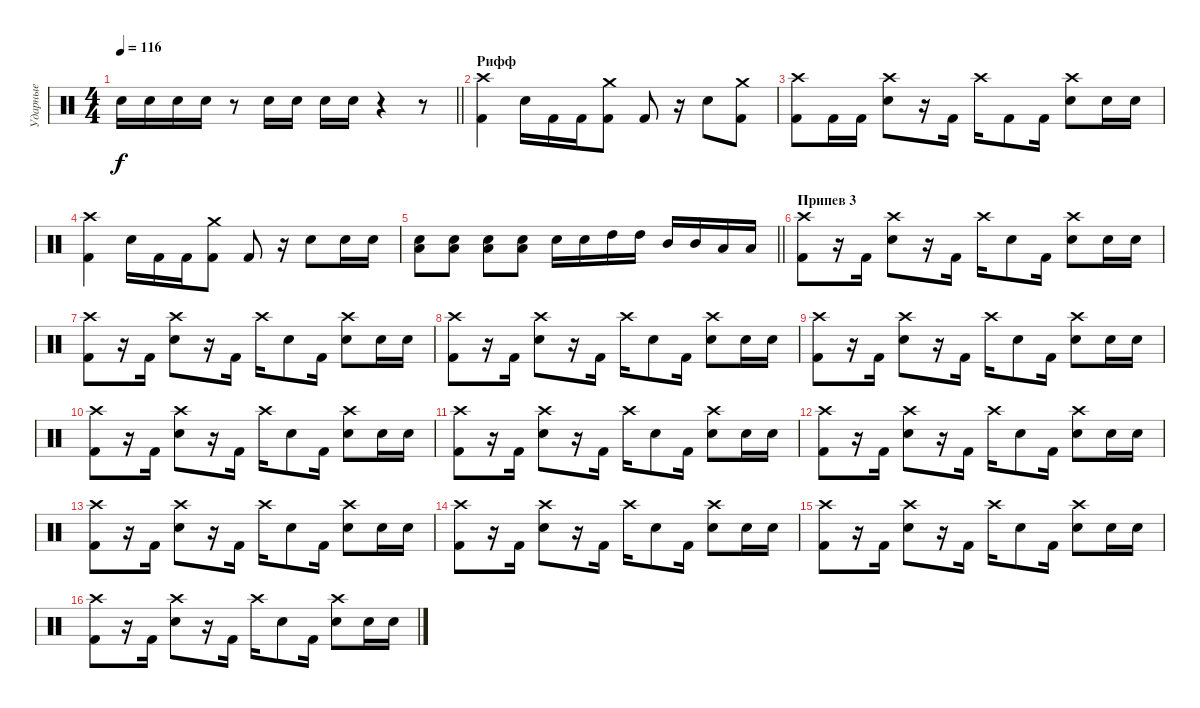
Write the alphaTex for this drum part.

\track ("Ударные" "Ударные") {instrument percussion}
\staff {score}
\articulation defaults
\ts (4 4)
\tempo 116
\clef neutral
\barLineRight lightlight
\ks c "Snare (hit) 2".16{dy f} "Snare (hit) 2".16 "Snare (hit) 2".16 "Snare (hit) 2".16
r.8 "Snare (hit) 2".16 "Snare (hit) 2".16 "Snare (hit) 2".16 "Snare (hit) 2".16 r.4 r.8 |
\section ("" "Рифф")
("Crash high (hit)" "Kick (hit) 2").4 "Snare (hit) 2".16 "Kick (hit) 2".16 "Kick (hit) 2".16 ("Crash medium (hit)" "Kick (hit) 2").8 "Kick (hit) 2".8 r.16 "Snare (hit) 2".8 ("Crash medium (hit)" "Kick (hit) 2").8 |
("Crash high (hit)" "Kick (hit) 2").8 "Kick (hit) 2".16 "Kick (hit) 2".16 ("Crash high (hit)" "Snare (hit) 2").8 r.16 "Kick (hit) 2".16 "Crash high (hit)".16 "Kick (hit) 2".8 "Kick (hit) 2".16 ("Crash high (hit)" "Snare (hit) 2").8 "Snare (hit) 2".16 "Snare (hit) 2".16 |
("Crash high (hit)" "Kick (hit) 2").4 "Snare (hit) 2".16 "Kick (hit) 2".16 "Kick (hit) 2".16 ("Crash medium (hit)" "Kick (hit) 2").8 "Kick (hit) 2".8 r.16 "Snare (hit) 2".8 "Snare (hit) 2".16 "Snare (hit) 2".16 |
\barLineRight lightlight
("Low Tom (hit)" "Snare (hit) 2").8 ("Low Tom (hit)" "Snare (hit) 2").8 ("Low Tom (hit)" "Snare (hit) 2").8 ("Low Tom (hit)" "Snare (hit) 2").8 "Snare (hit) 2".16 "Snare (hit) 2".16 "High Tom (hit)".16 "High Tom (hit)".16 "Mid Tom (hit)".16 "Mid Tom (hit)".16 "Low Tom (hit)".16 "Low Tom (hit)".16 |
\section ("" "Припев 3")
("Crash high (hit)" "Kick (hit) 2").8 r.16 "Kick (hit) 2".16 ("Crash high (hit)" "Snare (hit) 2").8 r.16 "Kick (hit) 2".16 "Crash high (hit)".16 "Snare (hit) 2".8 "Kick (hit) 2".16 ("Crash high (hit)" "Snare (hit) 2").8 "Snare (hit) 2".16 "Snare (hit) 2".16 |
("Crash high (hit)" "Kick (hit) 2").8 r.16 "Kick (hit) 2".16 ("Crash high (hit)" "Snare (hit) 2").8 r.16 "Kick (hit) 2".16 "Crash high (hit)".16 "Snare (hit) 2".8 "Kick (hit) 2".16 ("Crash high (hit)" "Snare (hit) 2").8 "Snare (hit) 2".16 "Snare (hit) 2".16 |
("Crash high (hit)" "Kick (hit) 2").8 r.16 "Kick (hit) 2".16 ("Crash high (hit)" "Snare (hit) 2").8 r.16 "Kick (hit) 2".16 "Crash high (hit)".16 "Snare (hit) 2".8 "Kick (hit) 2".16 ("Crash high (hit)" "Snare (hit) 2").8 "Snare (hit) 2".16 "Snare (hit) 2".16 |
("Crash high (hit)" "Kick (hit) 2").8 r.16 "Kick (hit) 2".16 ("Crash high (hit)" "Snare (hit) 2").8 r.16 "Kick (hit) 2".16 "Crash high (hit)".16 "Snare (hit) 2".8 "Kick (hit) 2".16 ("Crash high (hit)" "Snare (hit) 2").8 "Snare (hit) 2".16 "Snare (hit) 2".16 |
("Crash high (hit)" "Kick (hit) 2").8 r.16 "Kick (hit) 2".16 ("Crash high (hit)" "Snare (hit) 2").8 r.16 "Kick (hit) 2".16 "Crash high (hit)".16 "Snare (hit) 2".8 "Kick (hit) 2".16 ("Crash high (hit)" "Snare (hit) 2").8 "Snare (hit) 2".16 "Snare (hit) 2".16 |
("Crash high (hit)" "Kick (hit) 2").8 r.16 "Kick (hit) 2".16 ("Crash high (hit)" "Snare (hit) 2").8 r.16 "Kick (hit) 2".16 "Crash high (hit)".16 "Snare (hit) 2".8 "Kick (hit) 2".16 ("Crash high (hit)" "Snare (hit) 2").8 "Snare (hit) 2".16 "Snare (hit) 2".16 |
("Crash high (hit)" "Kick (hit) 2").8 r.16 "Kick (hit) 2".16 ("Crash high (hit)" "Snare (hit) 2").8 r.16 "Kick (hit) 2".16 "Crash high (hit)".16 "Snare (hit) 2".8 "Kick (hit) 2".16 ("Crash high (hit)" "Snare (hit) 2").8 "Snare (hit) 2".16 "Snare (hit) 2".16 |
("Crash high (hit)" "Kick (hit) 2").8 r.16 "Kick (hit) 2".16 ("Crash high (hit)" "Snare (hit) 2").8 r.16 "Kick (hit) 2".16 "Crash high (hit)".16 "Snare (hit) 2".8 "Kick (hit) 2".16 ("Crash high (hit)" "Snare (hit) 2").8 "Snare (hit) 2".16 "Snare (hit) 2".16 |
("Crash high (hit)" "Kick (hit) 2").8 r.16 "Kick (hit) 2".16 ("Crash high (hit)" "Snare (hit) 2").8 r.16 "Kick (hit) 2".16 "Crash high (hit)".16 "Snare (hit) 2".8 "Kick (hit) 2".16 ("Crash high (hit)" "Snare (hit) 2").8 "Snare (hit) 2".16 "Snare (hit) 2".16 |
("Crash high (hit)" "Kick (hit) 2").8 r.16 "Kick (hit) 2".16 ("Crash high (hit)" "Snare (hit) 2").8 r.16 "Kick (hit) 2".16 "Crash high (hit)".16 "Snare (hit) 2".8 "Kick (hit) 2".16 ("Crash high (hit)" "Snare (hit) 2").8 "Snare (hit) 2".16 "Snare (hit) 2".16 |
("Crash high (hit)" "Kick (hit) 2").8 r.16 "Kick (hit) 2".16 ("Crash high (hit)" "Snare (hit) 2").8 r.16 "Kick (hit) 2".16 "Crash high (hit)".16 "Snare (hit) 2".8 "Kick (hit) 2".16 ("Crash high (hit)" "Snare (hit) 2").8 "Snare (hit) 2".16 "Snare (hit) 2".16
